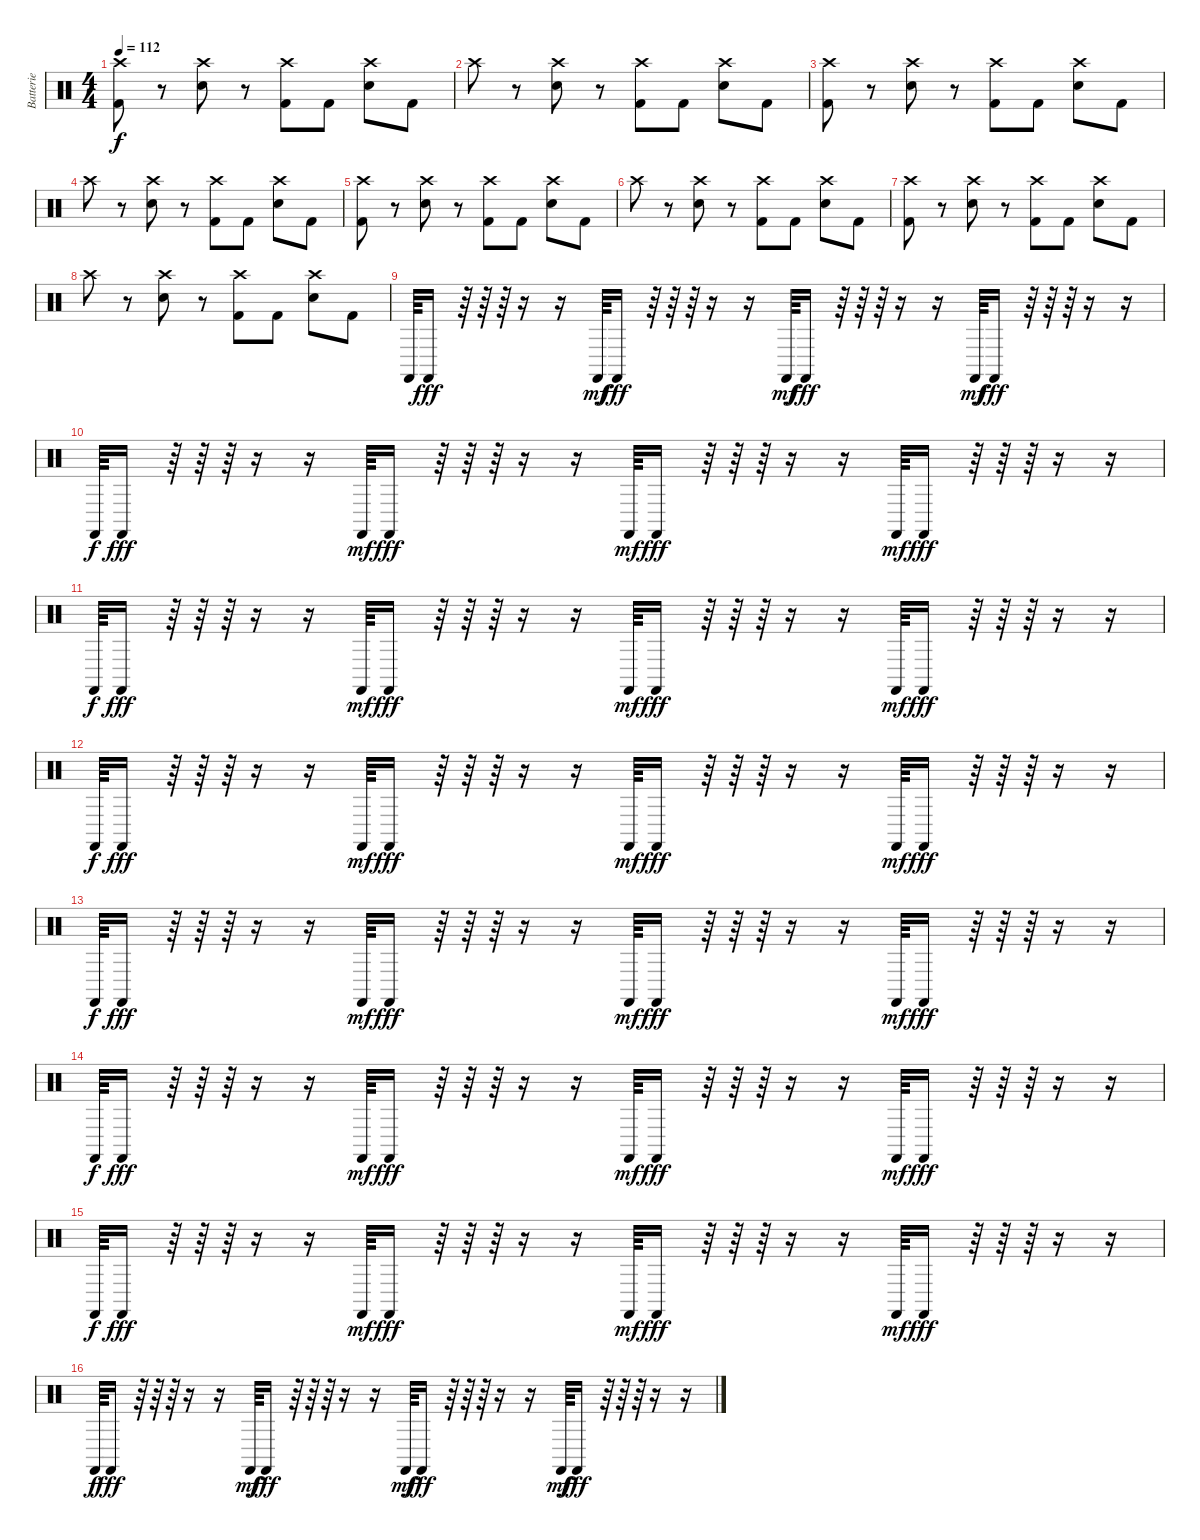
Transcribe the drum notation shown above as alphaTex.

\track ("Batterie" "Batterie") {instrument percussion}
\staff {score}
\articulation defaults
\ts (4 4)
\tempo 112
\clef neutral
\ks c
("Kick (hit) 2" "Crash high (hit)").8{dy f} r.8 ("Electric Snare (hit)" "Crash high (hit)").8 r.8 ("Kick (hit) 2" "Crash high (hit)").8 "Kick (hit) 2".8 ("Electric Snare (hit)" "Crash high (hit)").8 "Kick (hit) 2".8 |
"Crash high (hit)".8 r.8 ("Electric Snare (hit)" "Crash high (hit)").8 r.8 ("Kick (hit) 2" "Crash high (hit)").8 "Kick (hit) 2".8 ("Electric Snare (hit)" "Crash high (hit)").8 "Kick (hit) 2".8 |
("Kick (hit) 2" "Crash high (hit)").8 r.8 ("Electric Snare (hit)" "Crash high (hit)").8 r.8 ("Kick (hit) 2" "Crash high (hit)").8 "Kick (hit) 2".8 ("Electric Snare (hit)" "Crash high (hit)").8 "Kick (hit) 2".8 |
"Crash high (hit)".8 r.8 ("Electric Snare (hit)" "Crash high (hit)").8 r.8 ("Kick (hit) 2" "Crash high (hit)").8 "Kick (hit) 2".8 ("Electric Snare (hit)" "Crash high (hit)").8 "Kick (hit) 2".8 |
("Kick (hit) 2" "Crash high (hit)").8 r.8 ("Electric Snare (hit)" "Crash high (hit)").8 r.8 ("Kick (hit) 2" "Crash high (hit)").8 "Kick (hit) 2".8 ("Electric Snare (hit)" "Crash high (hit)").8 "Kick (hit) 2".8 |
"Crash high (hit)".8 r.8 ("Electric Snare (hit)" "Crash high (hit)").8 r.8 ("Kick (hit) 2" "Crash high (hit)").8 "Kick (hit) 2".8 ("Electric Snare (hit)" "Crash high (hit)").8 "Kick (hit) 2".8 |
("Kick (hit) 2" "Crash high (hit)").8 r.8 ("Electric Snare (hit)" "Crash high (hit)").8 r.8 ("Kick (hit) 2" "Crash high (hit)").8 "Kick (hit) 2".8 ("Electric Snare (hit)" "Crash high (hit)").8 "Kick (hit) 2".8 |
"Crash high (hit)".8 r.8 ("Electric Snare (hit)" "Crash high (hit)").8 r.8 ("Kick (hit) 2" "Crash high (hit)").8 "Kick (hit) 2".8 ("Electric Snare (hit)" "Crash high (hit)").8 "Kick (hit) 2".8 |
"Castanets (hit)".64 "Castanets (hit)".16{dy fff} r.64 r.64 r.64 r.16 r.16 "Castanets (hit)".64{dy mf} "Castanets (hit)".16{dy fff} r.64 r.64 r.64 r.16 r.16 "Castanets (hit)".64{dy mf} "Castanets (hit)".16{dy fff} r.64 r.64 r.64 r.16 r.16 "Castanets (hit)".64{dy mf} "Castanets (hit)".16{dy fff} r.64 r.64 r.64 r.16 r.16 |
"Castanets (hit)".64{dy f} "Castanets (hit)".16{dy fff} r.64 r.64 r.64 r.16 r.16 "Castanets (hit)".64{dy mf} "Castanets (hit)".16{dy fff} r.64 r.64 r.64 r.16 r.16 "Castanets (hit)".64{dy mf} "Castanets (hit)".16{dy fff} r.64 r.64 r.64 r.16 r.16 "Castanets (hit)".64{dy mf} "Castanets (hit)".16{dy fff} r.64 r.64 r.64 r.16 r.16 |
"Castanets (hit)".64{dy f} "Castanets (hit)".16{dy fff} r.64 r.64 r.64 r.16 r.16 "Castanets (hit)".64{dy mf} "Castanets (hit)".16{dy fff} r.64 r.64 r.64 r.16 r.16 "Castanets (hit)".64{dy mf} "Castanets (hit)".16{dy fff} r.64 r.64 r.64 r.16 r.16 "Castanets (hit)".64{dy mf} "Castanets (hit)".16{dy fff} r.64 r.64 r.64 r.16 r.16 |
"Castanets (hit)".64{dy f} "Castanets (hit)".16{dy fff} r.64 r.64 r.64 r.16 r.16 "Castanets (hit)".64{dy mf} "Castanets (hit)".16{dy fff} r.64 r.64 r.64 r.16 r.16 "Castanets (hit)".64{dy mf} "Castanets (hit)".16{dy fff} r.64 r.64 r.64 r.16 r.16 "Castanets (hit)".64{dy mf} "Castanets (hit)".16{dy fff} r.64 r.64 r.64 r.16 r.16 |
"Castanets (hit)".64{dy f} "Castanets (hit)".16{dy fff} r.64 r.64 r.64 r.16 r.16 "Castanets (hit)".64{dy mf} "Castanets (hit)".16{dy fff} r.64 r.64 r.64 r.16 r.16 "Castanets (hit)".64{dy mf} "Castanets (hit)".16{dy fff} r.64 r.64 r.64 r.16 r.16 "Castanets (hit)".64{dy mf} "Castanets (hit)".16{dy fff} r.64 r.64 r.64 r.16 r.16 |
"Castanets (hit)".64{dy f} "Castanets (hit)".16{dy fff} r.64 r.64 r.64 r.16 r.16 "Castanets (hit)".64{dy mf} "Castanets (hit)".16{dy fff} r.64 r.64 r.64 r.16 r.16 "Castanets (hit)".64{dy mf} "Castanets (hit)".16{dy fff} r.64 r.64 r.64 r.16 r.16 "Castanets (hit)".64{dy mf} "Castanets (hit)".16{dy fff} r.64 r.64 r.64 r.16 r.16 |
"Castanets (hit)".64{dy f} "Castanets (hit)".16{dy fff} r.64 r.64 r.64 r.16 r.16 "Castanets (hit)".64{dy mf} "Castanets (hit)".16{dy fff} r.64 r.64 r.64 r.16 r.16 "Castanets (hit)".64{dy mf} "Castanets (hit)".16{dy fff} r.64 r.64 r.64 r.16 r.16 "Castanets (hit)".64{dy mf} "Castanets (hit)".16{dy fff} r.64 r.64 r.64 r.16 r.16 |
"Castanets (hit)".64{dy f} "Castanets (hit)".16{dy fff} r.64 r.64 r.64 r.16 r.16 "Castanets (hit)".64{dy mf} "Castanets (hit)".16{dy fff} r.64 r.64 r.64 r.16 r.16 "Castanets (hit)".64{dy mf} "Castanets (hit)".16{dy fff} r.64 r.64 r.64 r.16 r.16 "Castanets (hit)".64{dy mf} "Castanets (hit)".16{dy fff} r.64 r.64 r.64 r.16 r.16
